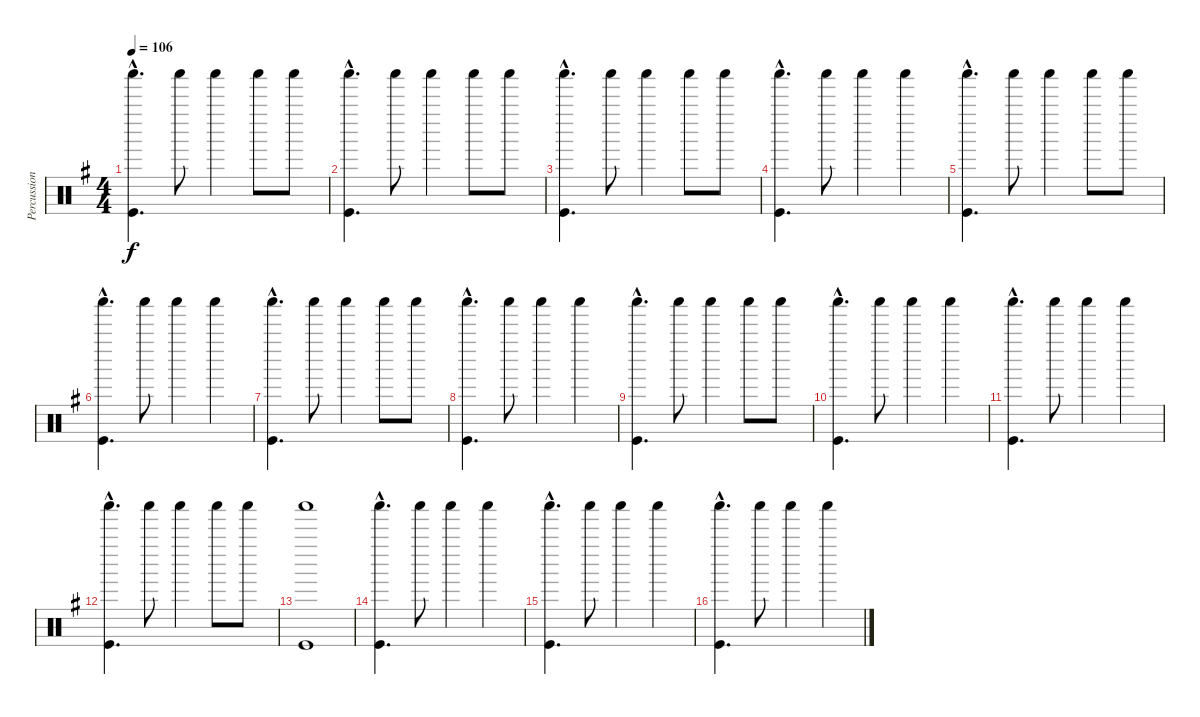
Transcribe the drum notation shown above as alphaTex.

\track ("Percussion" "Percussion") {instrument percussion}
\staff {score}
\articulation defaults
\ts (4 4)
\tempo 106
\clef neutral
\ks g
("Shaker (hit)"{hac} "Kick (hit)"{hac}).4{d dy f} "Shaker (hit)".8 "Shaker (hit)".4 "Shaker (hit)".8 "Shaker (hit)".8 |
("Shaker (hit)"{hac} "Kick (hit)"{hac}).4{d} "Shaker (hit)".8 "Shaker (hit)".4 "Shaker (hit)".8 "Shaker (hit)".8 |
("Shaker (hit)"{hac} "Kick (hit)"{hac}).4{d} "Shaker (hit)".8 "Shaker (hit)".4 "Shaker (hit)".8 "Shaker (hit)".8 |
("Shaker (hit)"{hac} "Kick (hit)"{hac}).4{d} "Shaker (hit)".8 "Shaker (hit)".4 "Shaker (hit)".4 |
("Shaker (hit)"{hac} "Kick (hit)"{hac}).4{d} "Shaker (hit)".8 "Shaker (hit)".4 "Shaker (hit)".8 "Shaker (hit)".8 |
("Shaker (hit)"{hac} "Kick (hit)"{hac}).4{d} "Shaker (hit)".8 "Shaker (hit)".4 "Shaker (hit)".4 |
("Shaker (hit)"{hac} "Kick (hit)"{hac}).4{d} "Shaker (hit)".8 "Shaker (hit)".4 "Shaker (hit)".8 "Shaker (hit)".8 |
("Shaker (hit)"{hac} "Kick (hit)"{hac}).4{d} "Shaker (hit)".8 "Shaker (hit)".4 "Shaker (hit)".4 |
("Shaker (hit)"{hac} "Kick (hit)"{hac}).4{d} "Shaker (hit)".8 "Shaker (hit)".4 "Shaker (hit)".8 "Shaker (hit)".8 |
("Shaker (hit)"{hac} "Kick (hit)"{hac}).4{d} "Shaker (hit)".8 "Shaker (hit)".4 "Shaker (hit)".4 |
("Shaker (hit)"{hac} "Kick (hit)"{hac}).4{d} "Shaker (hit)".8 "Shaker (hit)".4 "Shaker (hit)".4 |
("Shaker (hit)"{hac} "Kick (hit)"{hac}).4{d} "Shaker (hit)".8 "Shaker (hit)".4 "Shaker (hit)".8 "Shaker (hit)".8 |
("Shaker (hit)" "Kick (hit)").1 |
("Shaker (hit)"{hac} "Kick (hit)"{hac}).4{d} "Shaker (hit)".8 "Shaker (hit)".4 "Shaker (hit)".4 |
("Shaker (hit)"{hac} "Kick (hit)"{hac}).4{d} "Shaker (hit)".8 "Shaker (hit)".4 "Shaker (hit)".4 |
("Shaker (hit)"{hac} "Kick (hit)"{hac}).4{d} "Shaker (hit)".8 "Shaker (hit)".4 "Shaker (hit)".4
